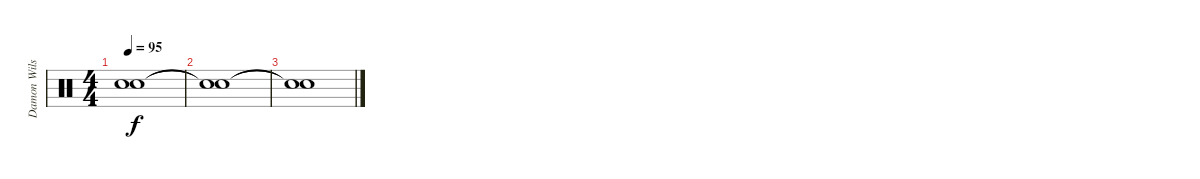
\track ("Damon Wilson (Drums)" "Damon Wils") {instrument percussion}
\staff {score}
\articulation defaults
\ts (4 4)
\tempo 95
\clef neutral
\ks c
("Snare (hit)"{t} "Snare (hit)"{t}).1{dy f} |
("Snare (hit)"{t} "Snare (hit)"{t}).1 |
("Snare (hit)"{t} "Snare (hit)"{t}).1
